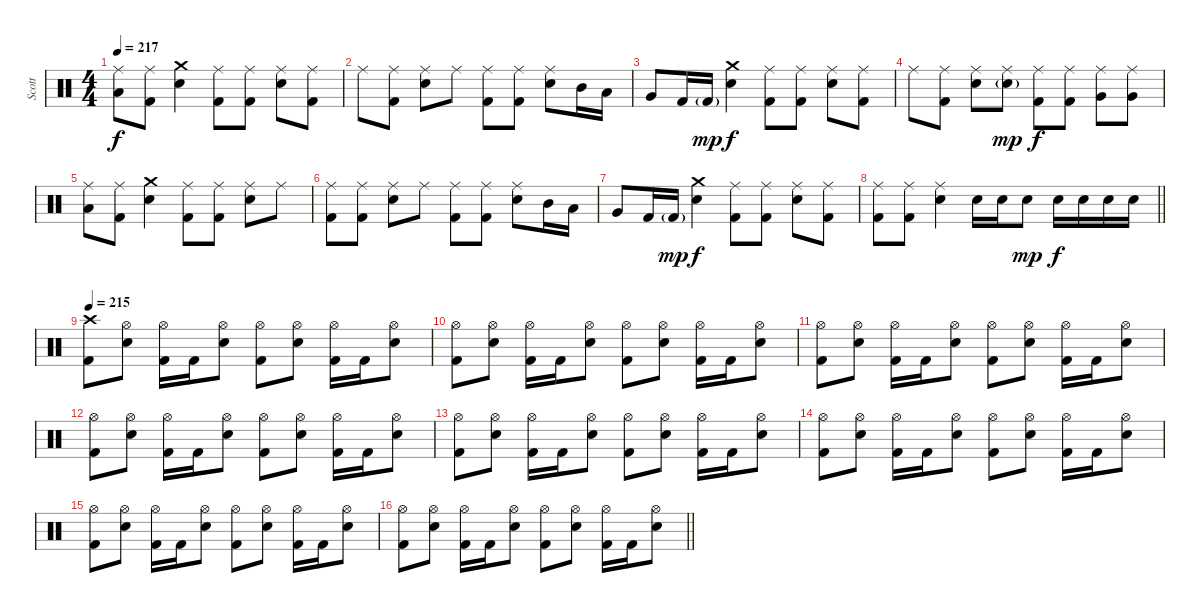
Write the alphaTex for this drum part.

\track ("Scott" "Scott") {instrument percussion}
\staff {score}
\articulation defaults
\ts (4 4)
\tempo 217
\clef neutral
\ks c
("Ride (middle)" "Low Floor Tom (hit)").8{dy f} ("Ride (middle)" "Kick (hit) 2").8 ("Crash medium (hit)" "Electric Snare (hit)").4 ("Ride (middle)" "Kick (hit) 2").8 ("Ride (middle)" "Kick (hit) 2").8 ("Ride (middle)" "Electric Snare (hit)").8 ("Ride (middle)" "Kick (hit) 2").8 |
"Ride (middle)".8 ("Ride (middle)" "Kick (hit) 2").8 ("Ride (middle)" "Electric Snare (hit)").8 "Ride (middle)".8 ("Ride (middle)" "Kick (hit) 2").8 ("Ride (middle)" "Kick (hit) 2").8 ("Ride (middle)" "Electric Snare (hit)").8 "Mid Tom (hit)".16 "Low Tom (hit)".16 |
"Very Low Tom (hit)".8 "Kick (hit) 2".16 "Kick (hit) 2"{g}.16{dy mp} ("Crash medium (hit)" "Electric Snare (hit)").4{dy f} ("Ride (middle)" "Kick (hit) 2").8 ("Ride (middle)" "Kick (hit) 2").8 ("Ride (middle)" "Electric Snare (hit)").8 ("Ride (middle)" "Kick (hit) 2").8 |
"Ride (middle)".8 ("Ride (middle)" "Kick (hit) 2").8 ("Ride (middle)" "Electric Snare (hit)").8 ("Ride (middle)" "Electric Snare (hit)"{g}).8{dy mp} ("Ride (middle)" "Kick (hit) 2").8{dy f} ("Ride (middle)" "Kick (hit) 2").8 ("Ride (middle)" "Very Low Tom (hit)").8 ("Ride (middle)" "Very Low Tom (hit)").8 |
("Ride (middle)" "Low Floor Tom (hit)").8 ("Ride (middle)" "Kick (hit) 2").8 ("Crash medium (hit)" "Electric Snare (hit)").4 ("Ride (middle)" "Kick (hit) 2").8 ("Ride (middle)" "Kick (hit) 2").8 ("Ride (middle)" "Electric Snare (hit)").8 "Ride (middle)".8 |
("Ride (middle)" "Kick (hit) 2").8 ("Ride (middle)" "Kick (hit) 2").8 ("Ride (middle)" "Electric Snare (hit)").8 "Ride (middle)".8 ("Ride (middle)" "Kick (hit) 2").8 ("Ride (middle)" "Kick (hit) 2").8 ("Ride (middle)" "Electric Snare (hit)").8 "Mid Tom (hit)".16 "Low Tom (hit)".16 |
"Very Low Tom (hit)".8 "Kick (hit) 2".16 "Kick (hit) 2"{g}.16{dy mp} ("Crash medium (hit)" "Electric Snare (hit)").4{dy f} ("Ride (middle)" "Kick (hit) 2").8 ("Ride (middle)" "Kick (hit) 2").8 ("Ride (middle)" "Electric Snare (hit)").8 ("Ride (middle)" "Kick (hit) 2").8 |
\barLineRight lightlight
("Ride (middle)" "Kick (hit) 2").8 ("Ride (middle)" "Kick (hit) 2").8 ("Ride (middle)" "Electric Snare (hit)").4 "Electric Snare (hit)".16 "Electric Snare (hit)".16 "Electric Snare (hit)".8{dy mp} "Electric Snare (hit)".16{dy f} "Electric Snare (hit)".16 "Electric Snare (hit)".16 "Electric Snare (hit)".16 |
\section ("" "")
\tempo 215
("Crash high (hit)" "Kick (hit) 2").8 ("Hi-Hat (open)" "Electric Snare (hit)").8 ("Hi-Hat (open)" "Kick (hit) 2").16 "Kick (hit) 2".16 ("Hi-Hat (open)" "Electric Snare (hit)").8 ("Hi-Hat (open)" "Kick (hit) 2").8 ("Hi-Hat (open)" "Electric Snare (hit)").8 ("Hi-Hat (open)" "Kick (hit) 2").16 "Kick (hit) 2".16 ("Hi-Hat (open)" "Electric Snare (hit)").8 |
("Hi-Hat (open)" "Kick (hit) 2").8 ("Hi-Hat (open)" "Electric Snare (hit)").8 ("Hi-Hat (open)" "Kick (hit) 2").16 "Kick (hit) 2".16 ("Hi-Hat (open)" "Electric Snare (hit)").8 ("Hi-Hat (open)" "Kick (hit) 2").8 ("Hi-Hat (open)" "Electric Snare (hit)").8 ("Hi-Hat (open)" "Kick (hit) 2").16 "Kick (hit) 2".16 ("Hi-Hat (open)" "Electric Snare (hit)").8 |
("Hi-Hat (open)" "Kick (hit) 2").8 ("Hi-Hat (open)" "Electric Snare (hit)").8 ("Hi-Hat (open)" "Kick (hit) 2").16 "Kick (hit) 2".16 ("Hi-Hat (open)" "Electric Snare (hit)").8 ("Hi-Hat (open)" "Kick (hit) 2").8 ("Hi-Hat (open)" "Electric Snare (hit)").8 ("Hi-Hat (open)" "Kick (hit) 2").16 "Kick (hit) 2".16 ("Hi-Hat (open)" "Electric Snare (hit)").8 |
("Hi-Hat (open)" "Kick (hit) 2").8 ("Hi-Hat (open)" "Electric Snare (hit)").8 ("Hi-Hat (open)" "Kick (hit) 2").16 "Kick (hit) 2".16 ("Hi-Hat (open)" "Electric Snare (hit)").8 ("Hi-Hat (open)" "Kick (hit) 2").8 ("Hi-Hat (open)" "Electric Snare (hit)").8 ("Hi-Hat (open)" "Kick (hit) 2").16 "Kick (hit) 2".16 ("Hi-Hat (open)" "Electric Snare (hit)").8 |
("Hi-Hat (open)" "Kick (hit) 2").8 ("Hi-Hat (open)" "Electric Snare (hit)").8 ("Hi-Hat (open)" "Kick (hit) 2").16 "Kick (hit) 2".16 ("Hi-Hat (open)" "Electric Snare (hit)").8 ("Hi-Hat (open)" "Kick (hit) 2").8 ("Hi-Hat (open)" "Electric Snare (hit)").8 ("Hi-Hat (open)" "Kick (hit) 2").16 "Kick (hit) 2".16 ("Hi-Hat (open)" "Electric Snare (hit)").8 |
("Hi-Hat (open)" "Kick (hit) 2").8 ("Hi-Hat (open)" "Electric Snare (hit)").8 ("Hi-Hat (open)" "Kick (hit) 2").16 "Kick (hit) 2".16 ("Hi-Hat (open)" "Electric Snare (hit)").8 ("Hi-Hat (open)" "Kick (hit) 2").8 ("Hi-Hat (open)" "Electric Snare (hit)").8 ("Hi-Hat (open)" "Kick (hit) 2").16 "Kick (hit) 2".16 ("Hi-Hat (open)" "Electric Snare (hit)").8 |
("Hi-Hat (open)" "Kick (hit) 2").8 ("Hi-Hat (open)" "Electric Snare (hit)").8 ("Hi-Hat (open)" "Kick (hit) 2").16 "Kick (hit) 2".16 ("Hi-Hat (open)" "Electric Snare (hit)").8 ("Hi-Hat (open)" "Kick (hit) 2").8 ("Hi-Hat (open)" "Electric Snare (hit)").8 ("Hi-Hat (open)" "Kick (hit) 2").16 "Kick (hit) 2".16 ("Hi-Hat (open)" "Electric Snare (hit)").8 |
\barLineRight lightlight
("Hi-Hat (open)" "Kick (hit) 2").8 ("Hi-Hat (open)" "Electric Snare (hit)").8 ("Hi-Hat (open)" "Kick (hit) 2").16 "Kick (hit) 2".16 ("Hi-Hat (open)" "Electric Snare (hit)").8 ("Hi-Hat (open)" "Kick (hit) 2").8 ("Hi-Hat (open)" "Electric Snare (hit)").8 ("Hi-Hat (open)" "Kick (hit) 2").16 "Kick (hit) 2".16 ("Hi-Hat (open)" "Electric Snare (hit)").8
